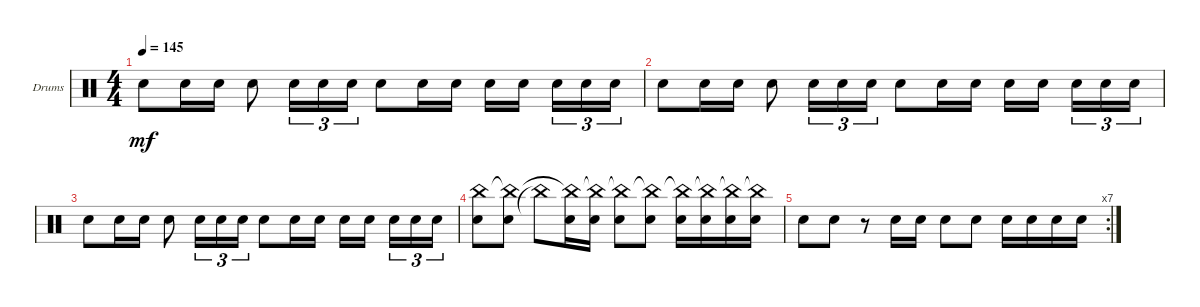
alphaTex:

\defaultSystemsLayout 4
\bracketExtendMode groupsimilarinstruments
\firstSystemTrackNameOrientation horizontal
\otherSystemsTrackNameOrientation horizontal
\track ("Drumkit" "Drums") {instrument percussion}
\staff {score}
\articulation defaults
\ts (4 4)
\tempo 145
\clef neutral
\scale
0.333333
\ks c "Snare (hit) 2".8{dy mf} "Snare (hit) 2".16 "Snare (hit) 2".16 "Snare (hit) 2".8 "Snare (hit) 2".16{tu (3 2)} "Snare (hit) 2".16{tu (3 2)} "Snare (hit) 2".16{tu (3 2)} "Snare (hit) 2".8 "Snare (hit) 2".16 "Snare (hit) 2".16 "Snare (hit) 2".16 "Snare (hit) 2".16 "Snare (hit) 2".16{tu (3 2)} "Snare (hit) 2".16{tu (3 2)} "Snare (hit) 2".16{tu (3 2)}
|
\scale
0.333333 "Snare (hit) 2".8 "Snare (hit) 2".16 "Snare (hit) 2".16 "Snare (hit) 2".8 "Snare (hit) 2".16{tu (3 2)} "Snare (hit) 2".16{tu (3 2)} "Snare (hit) 2".16{tu (3 2)} "Snare (hit) 2".8 "Snare (hit) 2".16 "Snare (hit) 2".16 "Snare (hit) 2".16 "Snare (hit) 2".16 "Snare (hit) 2".16{tu (3 2)} "Snare (hit) 2".16{tu (3 2)} "Snare (hit) 2".16{tu (3 2)} |
"Snare (hit) 2".8 "Snare (hit) 2".16 "Snare (hit) 2".16 "Snare (hit) 2".8 "Snare (hit) 2".16{tu (3 2)} "Snare (hit) 2".16{tu (3 2)} "Snare (hit) 2".16{tu (3 2)} "Snare (hit) 2".8 "Snare (hit) 2".16 "Snare (hit) 2".16 "Snare (hit) 2".16 "Snare (hit) 2".16 "Snare (hit) 2".16{tu (3 2)} "Snare (hit) 2".16{tu (3 2)} "Snare (hit) 2".16{tu (3 2)} |
("Snare (hit) 2" "China (hit)").8 ("Snare (hit) 2" "China (hit)"{t}).8 "China (hit)"{t}.8 ("Snare (hit) 2" "China (hit)"{t}).16 ("Snare (hit) 2" "China (hit)"{t}).16 ("Snare (hit) 2" "China (hit)"{t}).8 ("Snare (hit) 2" "China (hit)"{t}).8 ("Snare (hit) 2" "China (hit)"{t}).16 ("Snare (hit) 2" "China (hit)"{t}).16 ("Snare (hit) 2" "China (hit)"{t}).16 ("Snare (hit) 2" "China (hit)"{t}).16 |
\rc 7 "Snare (hit) 2".8 "Snare (hit) 2".8
r.8 "Snare (hit) 2".16 "Snare (hit) 2".16 "Snare (hit) 2".8 "Snare (hit) 2".8 "Snare (hit) 2".16 "Snare (hit) 2".16 "Snare (hit) 2".16 "Snare (hit) 2".16
